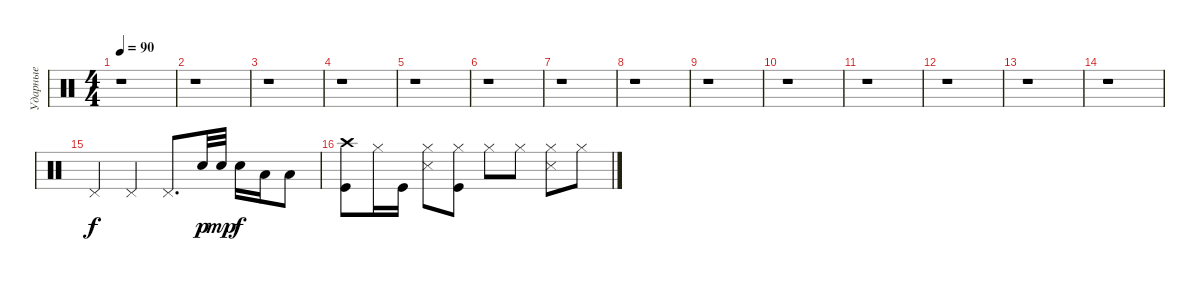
\track ("Ударные" "Ударные") {instrument percussion}
\staff {score}
\articulation defaults
\ts (4 4)
\tempo 90
\clef neutral
\ks c
r.1{dy f} |
r.1 |
r.1 |
r.1 |
r.1 |
r.1 |
r.1 |
r.1 |
r.1 |
r.1 |
r.1 |
r.1 |
r.1 |
r.1 |
"Pedal Hi-Hat (hit)".4 "Pedal Hi-Hat (hit)".4 "Pedal Hi-Hat (hit)".8{d} "Electric Snare (hit)".32{dy p} "Electric Snare (hit)".32{dy mp} "Electric Snare (hit)".16{dy f} "Low Tom (hit)".16 "Low Floor Tom (hit)".8 |
("Crash high (hit)" "Kick (hit)").8 "Hi-Hat (closed)".16 "Kick (hit)".16 ("Hi-Hat (closed)" "Snare (side stick) 3").8 ("Hi-Hat (closed)" "Kick (hit)").8 "Hi-Hat (closed)".8 "Hi-Hat (closed)".8 ("Hi-Hat (closed)" "Snare (side stick) 3").8 "Hi-Hat (closed)".8
